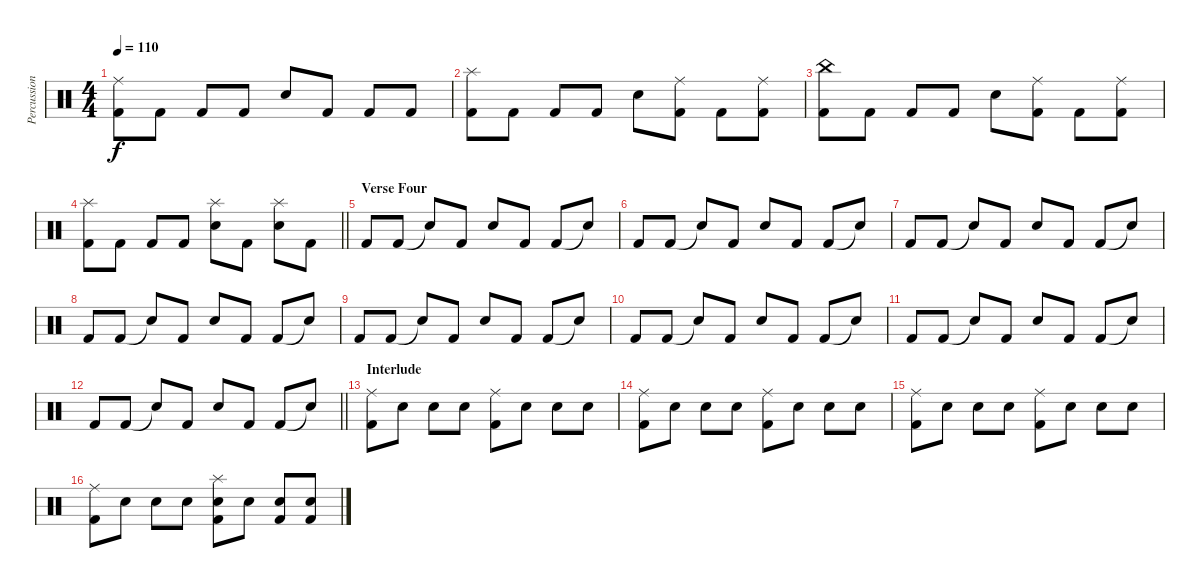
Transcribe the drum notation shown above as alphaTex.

\track ("Percussion" "Percussion") {instrument percussion}
\staff {score}
\articulation defaults
\ts (4 4)
\tempo 110
\clef neutral
\ks c
("Ride (middle)" "Kick (hit) 2").8{dy f} "Kick (hit) 2".8 "Kick (hit) 2".8 "Kick (hit) 2".8 "Electric Snare (hit)".8 "Kick (hit) 2".8 "Kick (hit) 2".8 "Kick (hit) 2".8 |
("Splash (hit)" "Kick (hit) 2").8 "Kick (hit) 2".8 "Kick (hit) 2".8 "Kick (hit) 2".8 "Electric Snare (hit)".8 ("Ride (middle)" "Kick (hit) 2").8 "Kick (hit) 2".8 ("Ride (middle)" "Kick (hit) 2").8 |
("China (hit)" "Kick (hit) 2").8 "Kick (hit) 2".8 "Kick (hit) 2".8 "Kick (hit) 2".8 "Electric Snare (hit)".8 ("Ride (middle)" "Kick (hit) 2").8 "Kick (hit) 2".8 ("Ride (middle)" "Kick (hit) 2").8 |
\barLineRight lightlight
("Splash (hit)" "Kick (hit) 2").8 "Kick (hit) 2".8 "Kick (hit) 2".8 "Kick (hit) 2".8 ("Splash (hit)" "Electric Snare (hit)").8 "Kick (hit) 2".8 ("Splash (hit)" "Electric Snare (hit)").8 "Kick (hit) 2".8 |
\section ("" "Verse Four")
"Kick (hit) 2".8 "Kick (hit) 2".8 "Snare (hit)"{t}.8 "Kick (hit) 2".8 "Electric Snare (hit)".8 "Kick (hit) 2".8 "Kick (hit) 2".8 "Snare (hit)"{t}.8 |
"Kick (hit) 2".8 "Kick (hit) 2".8 "Snare (hit)"{t}.8 "Kick (hit) 2".8 "Electric Snare (hit)".8 "Kick (hit) 2".8 "Kick (hit) 2".8 "Snare (hit)"{t}.8 |
"Kick (hit) 2".8 "Kick (hit) 2".8 "Snare (hit)"{t}.8 "Kick (hit) 2".8 "Electric Snare (hit)".8 "Kick (hit) 2".8 "Kick (hit) 2".8 "Snare (hit)"{t}.8 |
"Kick (hit) 2".8 "Kick (hit) 2".8 "Snare (hit)"{t}.8 "Kick (hit) 2".8 "Electric Snare (hit)".8 "Kick (hit) 2".8 "Kick (hit) 2".8 "Snare (hit)"{t}.8 |
"Kick (hit) 2".8 "Kick (hit) 2".8 "Snare (hit)"{t}.8 "Kick (hit) 2".8 "Electric Snare (hit)".8 "Kick (hit) 2".8 "Kick (hit) 2".8 "Snare (hit)"{t}.8 |
"Kick (hit) 2".8 "Kick (hit) 2".8 "Snare (hit)"{t}.8 "Kick (hit) 2".8 "Electric Snare (hit)".8 "Kick (hit) 2".8 "Kick (hit) 2".8 "Snare (hit)"{t}.8 |
"Kick (hit) 2".8 "Kick (hit) 2".8 "Snare (hit)"{t}.8 "Kick (hit) 2".8 "Electric Snare (hit)".8 "Kick (hit) 2".8 "Kick (hit) 2".8 "Snare (hit)"{t}.8 |
\barLineRight lightlight "Kick (hit) 2".8 "Kick (hit) 2".8 "Snare (hit)"{t}.8 "Kick (hit) 2".8 "Electric Snare (hit)".8 "Kick (hit) 2".8 "Kick (hit) 2".8 "Snare (hit)"{t}.8
|
\section ("" "Interlude")
("Ride (middle)" "Kick (hit) 2").8 "Electric Snare (hit)".8 "Electric Snare (hit)".8 "Electric Snare (hit)".8 ("Ride (middle)" "Kick (hit) 2").8 "Electric Snare (hit)".8 "Electric Snare (hit)".8 "Electric Snare (hit)".8 |
("Ride (middle)" "Kick (hit) 2").8 "Electric Snare (hit)".8 "Electric Snare (hit)".8 "Electric Snare (hit)".8 ("Ride (middle)" "Kick (hit) 2").8 "Electric Snare (hit)".8 "Electric Snare (hit)".8 "Electric Snare (hit)".8 |
("Ride (middle)" "Kick (hit) 2").8 "Electric Snare (hit)".8 "Electric Snare (hit)".8 "Electric Snare (hit)".8 ("Ride (middle)" "Kick (hit) 2").8 "Electric Snare (hit)".8 "Electric Snare (hit)".8 "Electric Snare (hit)".8 |
("Ride (middle)" "Kick (hit) 2").8 "Electric Snare (hit)".8 "Electric Snare (hit)".8 "Electric Snare (hit)".8 ("Splash (hit)" "Electric Snare (hit)" "Kick (hit) 2").8 "Electric Snare (hit)".8 ("Electric Snare (hit)" "Kick (hit) 2").8 ("Electric Snare (hit)" "Kick (hit) 2").8
